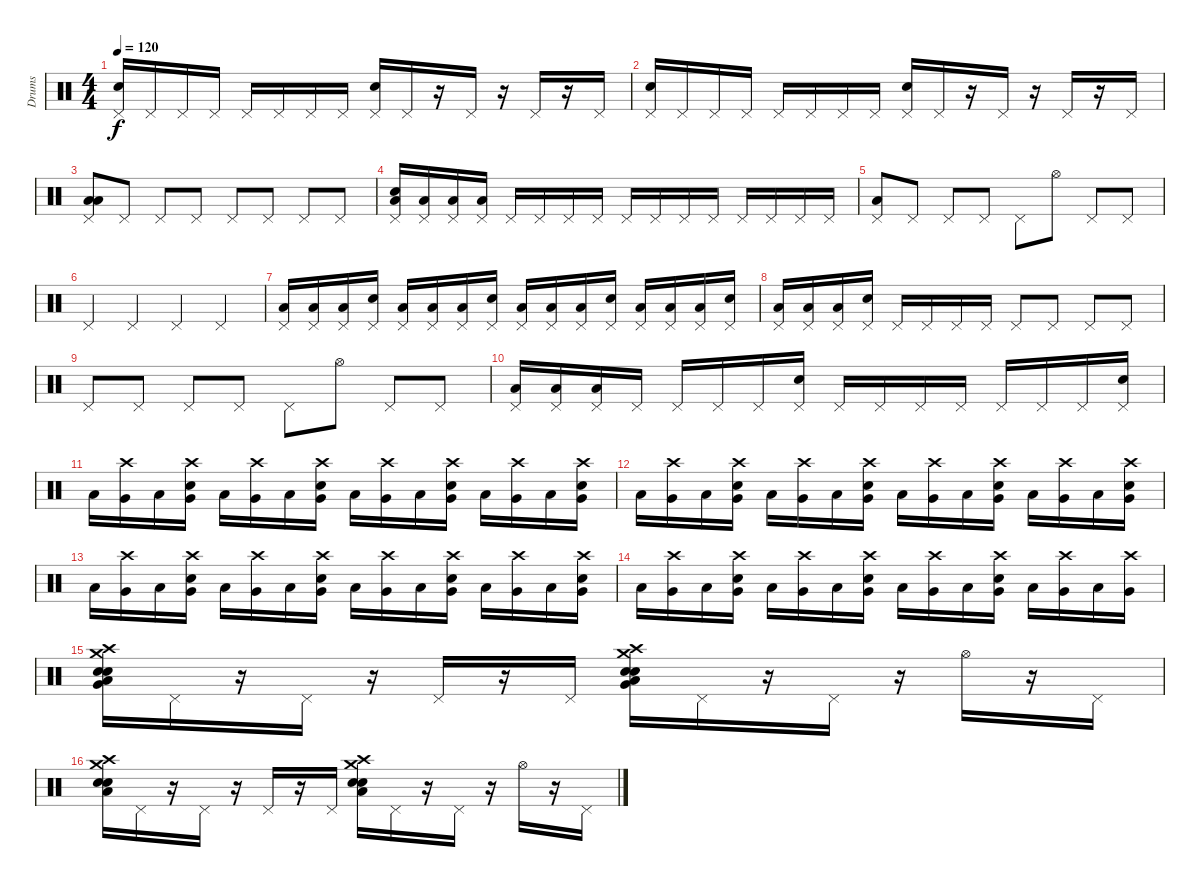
\track ("Drums" "Drums") {instrument percussion}
\staff {score}
\articulation defaults
\ts (4 4)
\tempo 120
\clef neutral
\ks c
("Pedal Hi-Hat (hit)" "Electric Snare (hit)").16{dy f} "Pedal Hi-Hat (hit)".16 "Pedal Hi-Hat (hit)".16 "Pedal Hi-Hat (hit)".16 "Pedal Hi-Hat (hit)".16 "Pedal Hi-Hat (hit)".16 "Pedal Hi-Hat (hit)".16 "Pedal Hi-Hat (hit)".16 ("Pedal Hi-Hat (hit)" "Electric Snare (hit)").16 "Pedal Hi-Hat (hit)".16 r.16 "Pedal Hi-Hat (hit)".16 r.16 "Pedal Hi-Hat (hit)".16 r.16 "Pedal Hi-Hat (hit)".16 |
("Pedal Hi-Hat (hit)" "Electric Snare (hit)").16 "Pedal Hi-Hat (hit)".16 "Pedal Hi-Hat (hit)".16 "Pedal Hi-Hat (hit)".16 "Pedal Hi-Hat (hit)".16 "Pedal Hi-Hat (hit)".16 "Pedal Hi-Hat (hit)".16 "Pedal Hi-Hat (hit)".16 ("Pedal Hi-Hat (hit)" "Electric Snare (hit)").16 "Pedal Hi-Hat (hit)".16 r.16 "Pedal Hi-Hat (hit)".16 r.16 "Pedal Hi-Hat (hit)".16 r.16 "Pedal Hi-Hat (hit)".16 |
("Pedal Hi-Hat (hit)" "Low Floor Tom (hit)" "Low Floor Tom (hit)").8 "Pedal Hi-Hat (hit)".8 "Pedal Hi-Hat (hit)".8 "Pedal Hi-Hat (hit)".8 "Pedal Hi-Hat (hit)".8 "Pedal Hi-Hat (hit)".8 "Pedal Hi-Hat (hit)".8 "Pedal Hi-Hat (hit)".8 |
("Pedal Hi-Hat (hit)" "Snare (hit) 2" "Low Floor Tom (hit)").16 ("Pedal Hi-Hat (hit)" "Low Floor Tom (hit)").16 ("Pedal Hi-Hat (hit)" "Low Floor Tom (hit)").16 ("Pedal Hi-Hat (hit)" "Low Floor Tom (hit)").16 "Pedal Hi-Hat (hit)".16 "Pedal Hi-Hat (hit)".16 "Pedal Hi-Hat (hit)".16 "Pedal Hi-Hat (hit)".16 "Pedal Hi-Hat (hit)".16 "Pedal Hi-Hat (hit)".16 "Pedal Hi-Hat (hit)".16 "Pedal Hi-Hat (hit)".16 "Pedal Hi-Hat (hit)".16 "Pedal Hi-Hat (hit)".16 "Pedal Hi-Hat (hit)".16 "Pedal Hi-Hat (hit)".16 |
("Pedal Hi-Hat (hit)" "Low Tom (hit)").8 "Pedal Hi-Hat (hit)".8 "Pedal Hi-Hat (hit)".8 "Pedal Hi-Hat (hit)".8 "Pedal Hi-Hat (hit)".8 "Hi-Hat (open)".8 "Pedal Hi-Hat (hit)".8 "Pedal Hi-Hat (hit)".8 |
"Pedal Hi-Hat (hit)".4 "Pedal Hi-Hat (hit)".4 "Pedal Hi-Hat (hit)".4 "Pedal Hi-Hat (hit)".4 |
("Pedal Hi-Hat (hit)" "Low Floor Tom (hit)").16 ("Pedal Hi-Hat (hit)" "Low Floor Tom (hit)").16 ("Pedal Hi-Hat (hit)" "Low Floor Tom (hit)").16 ("Pedal Hi-Hat (hit)" "Electric Snare (hit)").16 ("Pedal Hi-Hat (hit)" "Low Floor Tom (hit)").16 ("Pedal Hi-Hat (hit)" "Low Floor Tom (hit)").16 ("Pedal Hi-Hat (hit)" "Low Floor Tom (hit)").16 ("Pedal Hi-Hat (hit)" "Electric Snare (hit)").16 ("Pedal Hi-Hat (hit)" "Low Floor Tom (hit)").16 ("Pedal Hi-Hat (hit)" "Low Floor Tom (hit)").16 ("Pedal Hi-Hat (hit)" "Low Floor Tom (hit)").16 ("Pedal Hi-Hat (hit)" "Electric Snare (hit)").16 ("Pedal Hi-Hat (hit)" "Low Floor Tom (hit)").16 ("Pedal Hi-Hat (hit)" "Low Floor Tom (hit)").16 ("Pedal Hi-Hat (hit)" "Low Floor Tom (hit)").16 ("Pedal Hi-Hat (hit)" "Electric Snare (hit)").16 |
("Pedal Hi-Hat (hit)" "Low Floor Tom (hit)").16 ("Pedal Hi-Hat (hit)" "Low Floor Tom (hit)").16 ("Pedal Hi-Hat (hit)" "Low Floor Tom (hit)").16 ("Pedal Hi-Hat (hit)" "Electric Snare (hit)").16 "Pedal Hi-Hat (hit)".16 "Pedal Hi-Hat (hit)".16 "Pedal Hi-Hat (hit)".16 "Pedal Hi-Hat (hit)".16 "Pedal Hi-Hat (hit)".8 "Pedal Hi-Hat (hit)".8 "Pedal Hi-Hat (hit)".8 "Pedal Hi-Hat (hit)".8 |
"Pedal Hi-Hat (hit)".8 "Pedal Hi-Hat (hit)".8 "Pedal Hi-Hat (hit)".8 "Pedal Hi-Hat (hit)".8 "Pedal Hi-Hat (hit)".8 "Hi-Hat (open)".8 "Pedal Hi-Hat (hit)".8 "Pedal Hi-Hat (hit)".8 |
("Pedal Hi-Hat (hit)" "Low Floor Tom (hit)").16 ("Pedal Hi-Hat (hit)" "Low Floor Tom (hit)").16 ("Pedal Hi-Hat (hit)" "Low Floor Tom (hit)").16 "Pedal Hi-Hat (hit)".16 "Pedal Hi-Hat (hit)".16 "Pedal Hi-Hat (hit)".16 "Pedal Hi-Hat (hit)".16 ("Pedal Hi-Hat (hit)" "Electric Snare (hit)").16 "Pedal Hi-Hat (hit)".16 "Pedal Hi-Hat (hit)".16 "Pedal Hi-Hat (hit)".16 "Pedal Hi-Hat (hit)".16 "Pedal Hi-Hat (hit)".16 "Pedal Hi-Hat (hit)".16 "Pedal Hi-Hat (hit)".16 ("Pedal Hi-Hat (hit)" "Electric Snare (hit)").16 |
"Low Floor Tom (hit)".16 ("Crash high (hit)" "Very Low Tom (hit)").16 "Low Floor Tom (hit)".16 ("Crash high (hit)" "Electric Snare (hit)" "Very Low Tom (hit)").16 "Low Floor Tom (hit)".16 ("Crash high (hit)" "Very Low Tom (hit)").16 "Low Floor Tom (hit)".16 ("Crash high (hit)" "Electric Snare (hit)" "Very Low Tom (hit)").16 "Low Floor Tom (hit)".16 ("Crash high (hit)" "Very Low Tom (hit)").16 "Low Floor Tom (hit)".16 ("Crash high (hit)" "Electric Snare (hit)" "Very Low Tom (hit)").16 "Low Floor Tom (hit)".16 ("Crash high (hit)" "Very Low Tom (hit)").16 "Low Floor Tom (hit)".16 ("Crash high (hit)" "Electric Snare (hit)" "Very Low Tom (hit)").16 |
"Low Floor Tom (hit)".16 ("Crash high (hit)" "Very Low Tom (hit)").16 "Low Floor Tom (hit)".16 ("Crash high (hit)" "Electric Snare (hit)" "Very Low Tom (hit)").16 "Low Floor Tom (hit)".16 ("Crash high (hit)" "Very Low Tom (hit)").16 "Low Floor Tom (hit)".16 ("Crash high (hit)" "Electric Snare (hit)" "Very Low Tom (hit)").16 "Low Floor Tom (hit)".16 ("Crash high (hit)" "Very Low Tom (hit)").16 "Low Floor Tom (hit)".16 ("Crash high (hit)" "Electric Snare (hit)" "Very Low Tom (hit)").16 "Low Floor Tom (hit)".16 ("Crash high (hit)" "Very Low Tom (hit)").16 "Low Floor Tom (hit)".16 ("Crash high (hit)" "Electric Snare (hit)" "Very Low Tom (hit)").16 |
"Low Floor Tom (hit)".16 ("Crash high (hit)" "Very Low Tom (hit)").16 "Low Floor Tom (hit)".16 ("Crash high (hit)" "Electric Snare (hit)" "Very Low Tom (hit)").16 "Low Floor Tom (hit)".16 ("Crash high (hit)" "Very Low Tom (hit)").16 "Low Floor Tom (hit)".16 ("Crash high (hit)" "Electric Snare (hit)" "Very Low Tom (hit)").16 "Low Floor Tom (hit)".16 ("Crash high (hit)" "Very Low Tom (hit)").16 "Low Floor Tom (hit)".16 ("Crash high (hit)" "Electric Snare (hit)" "Very Low Tom (hit)").16 "Low Floor Tom (hit)".16 ("Crash high (hit)" "Very Low Tom (hit)").16 "Low Floor Tom (hit)".16 ("Crash high (hit)" "Electric Snare (hit)" "Very Low Tom (hit)").16 |
"Low Floor Tom (hit)".16 ("Crash high (hit)" "Very Low Tom (hit)").16 "Low Floor Tom (hit)".16 ("Crash high (hit)" "Electric Snare (hit)" "Very Low Tom (hit)").16 "Low Floor Tom (hit)".16 ("Crash high (hit)" "Very Low Tom (hit)").16 "Low Floor Tom (hit)".16 ("Crash high (hit)" "Electric Snare (hit)" "Very Low Tom (hit)").16 "Low Floor Tom (hit)".16 ("Crash high (hit)" "Very Low Tom (hit)").16 "Low Floor Tom (hit)".16 ("Crash high (hit)" "Electric Snare (hit)" "Very Low Tom (hit)").16 "Low Floor Tom (hit)".16 ("Crash high (hit)" "Very Low Tom (hit)").16 "Low Floor Tom (hit)".16 ("Crash high (hit)" "Very Low Tom (hit)").16 |
("Crash high (hit)" "Crash medium (hit)" "Snare (hit) 2" "Electric Snare (hit)" "Low Floor Tom (hit)" "Very Low Tom (hit)").16 "Pedal Hi-Hat (hit)".16 r.16 "Pedal Hi-Hat (hit)".16 r.16 "Pedal Hi-Hat (hit)".16 r.16 "Pedal Hi-Hat (hit)".16 ("Crash high (hit)" "Crash medium (hit)" "Snare (hit) 2" "Electric Snare (hit)" "Low Floor Tom (hit)" "Very Low Tom (hit)").16 "Pedal Hi-Hat (hit)".16 r.16 "Pedal Hi-Hat (hit)".16 r.16 "Hi-Hat (open)".16 r.16 "Pedal Hi-Hat (hit)".16 |
("Crash high (hit)" "Crash medium (hit)" "Snare (hit) 2" "Electric Snare (hit)" "Low Floor Tom (hit)").16 "Pedal Hi-Hat (hit)".16 r.16 "Pedal Hi-Hat (hit)".16 r.16 "Pedal Hi-Hat (hit)".16 r.16 "Pedal Hi-Hat (hit)".16 ("Crash high (hit)" "Crash medium (hit)" "Snare (hit) 2" "Electric Snare (hit)" "Low Floor Tom (hit)").16 "Pedal Hi-Hat (hit)".16 r.16 "Pedal Hi-Hat (hit)".16 r.16 "Hi-Hat (open)".16 r.16 "Pedal Hi-Hat (hit)".16
